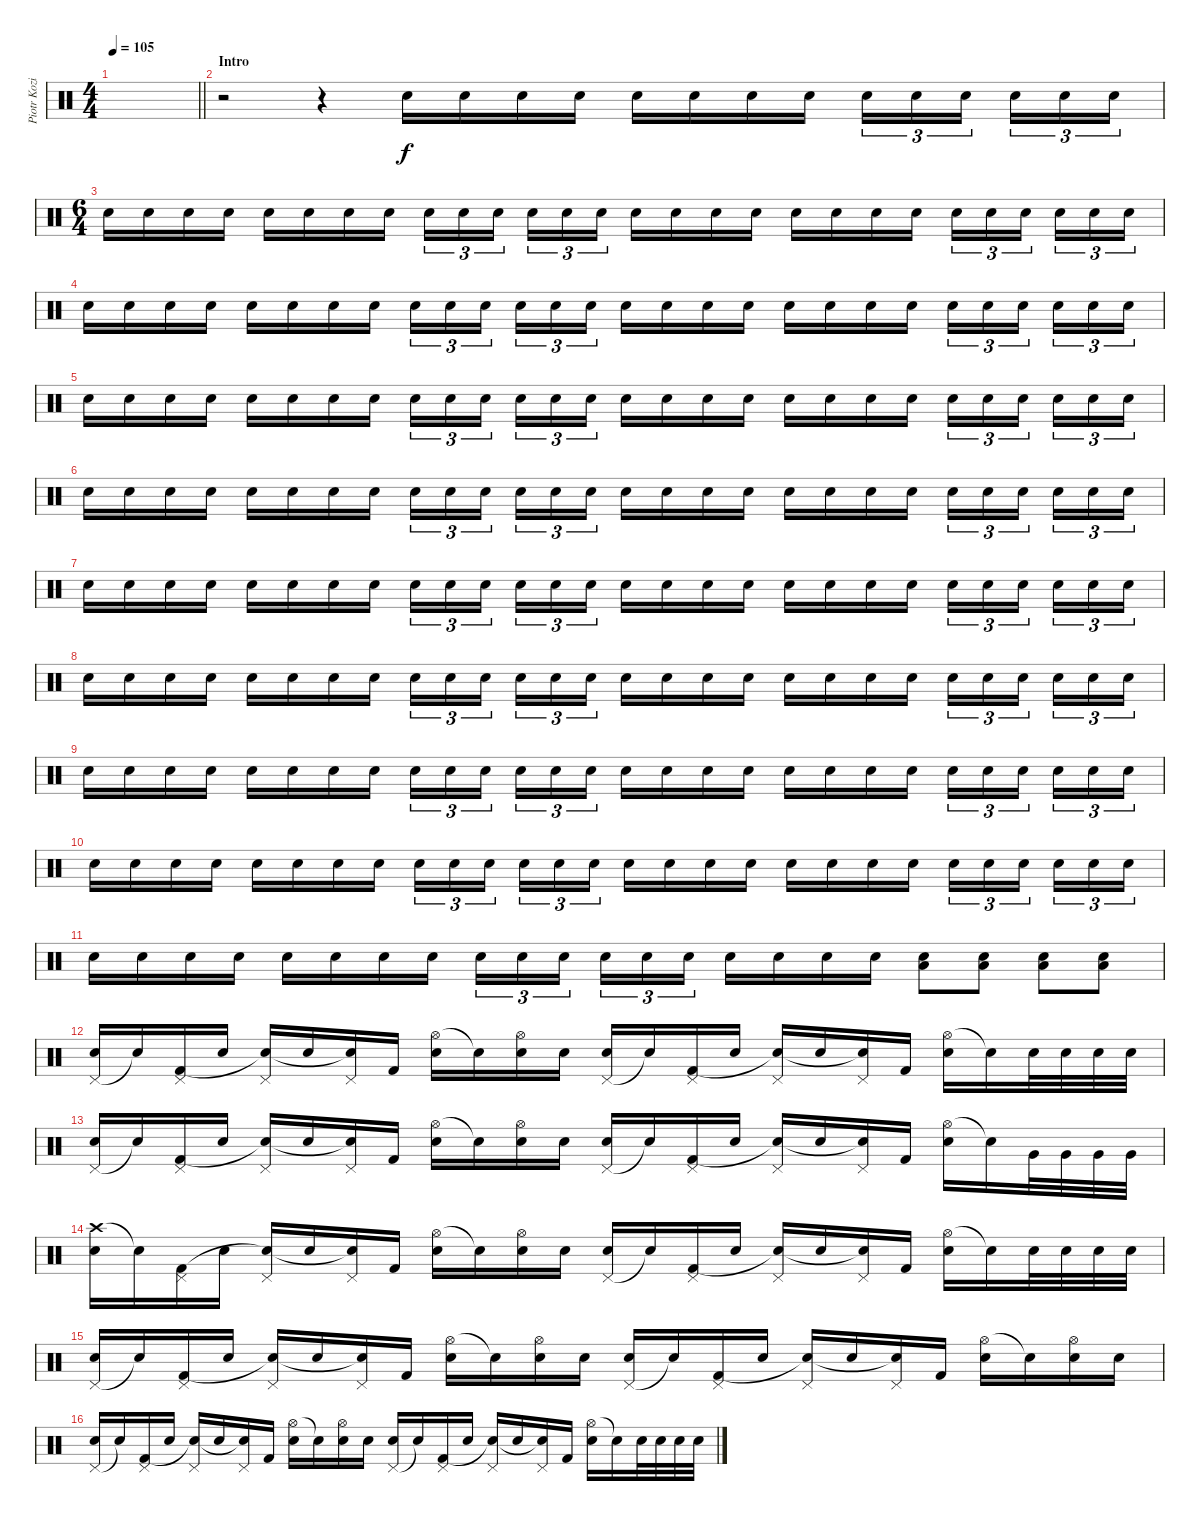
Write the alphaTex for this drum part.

\track ("Piotr Kozieradzki" "Piotr Kozi") {instrument percussion}
\staff {score}
\articulation defaults
\ts (4 4)
\tempo 105
\clef neutral
\barLineRight lightlight
\ks c
|
\section ("" "Intro")
r.2 r.4 "Electric Snare (hit)".16{volume 8} "Electric Snare (hit)".16 "Electric Snare (hit)".16 "Electric Snare (hit)".16 "Electric Snare (hit)".16 "Electric Snare (hit)".16 "Electric Snare (hit)".16 "Electric Snare (hit)".16{beam splitsecondary} "Electric Snare (hit)".16{tu (3 2)} "Electric Snare (hit)".16{tu (3 2)} "Electric Snare (hit)".16{tu (3 2) beam splitsecondary} "Electric Snare (hit)".16{tu (3 2)} "Electric Snare (hit)".16{tu (3 2)} "Electric Snare (hit)".16{tu (3 2)} |
\ts (6 4)
"Electric Snare (hit)".16 "Electric Snare (hit)".16 "Electric Snare (hit)".16 "Electric Snare (hit)".16 "Electric Snare (hit)".16 "Electric Snare (hit)".16 "Electric Snare (hit)".16 "Electric Snare (hit)".16{beam splitsecondary} "Electric Snare (hit)".16{tu (3 2)} "Electric Snare (hit)".16{tu (3 2)} "Electric Snare (hit)".16{tu (3 2) beam splitsecondary} "Electric Snare (hit)".16{tu (3 2)} "Electric Snare (hit)".16{tu (3 2)} "Electric Snare (hit)".16{tu (3 2)} "Electric Snare (hit)".16 "Electric Snare (hit)".16 "Electric Snare (hit)".16 "Electric Snare (hit)".16 "Electric Snare (hit)".16 "Electric Snare (hit)".16 "Electric Snare (hit)".16 "Electric Snare (hit)".16{beam splitsecondary} "Electric Snare (hit)".16{tu (3 2)} "Electric Snare (hit)".16{tu (3 2)} "Electric Snare (hit)".16{tu (3 2) beam splitsecondary} "Electric Snare (hit)".16{tu (3 2)} "Electric Snare (hit)".16{tu (3 2)} "Electric Snare (hit)".16{tu (3 2)} |
"Electric Snare (hit)".16 "Electric Snare (hit)".16 "Electric Snare (hit)".16 "Electric Snare (hit)".16 "Electric Snare (hit)".16 "Electric Snare (hit)".16 "Electric Snare (hit)".16 "Electric Snare (hit)".16{beam splitsecondary} "Electric Snare (hit)".16{tu (3 2)} "Electric Snare (hit)".16{tu (3 2)} "Electric Snare (hit)".16{tu (3 2) beam splitsecondary} "Electric Snare (hit)".16{tu (3 2)} "Electric Snare (hit)".16{tu (3 2)} "Electric Snare (hit)".16{tu (3 2)} "Electric Snare (hit)".16 "Electric Snare (hit)".16 "Electric Snare (hit)".16 "Electric Snare (hit)".16 "Electric Snare (hit)".16 "Electric Snare (hit)".16 "Electric Snare (hit)".16 "Electric Snare (hit)".16{beam splitsecondary} "Electric Snare (hit)".16{tu (3 2)} "Electric Snare (hit)".16{tu (3 2)} "Electric Snare (hit)".16{tu (3 2) beam splitsecondary} "Electric Snare (hit)".16{tu (3 2)} "Electric Snare (hit)".16{tu (3 2)} "Electric Snare (hit)".16{tu (3 2)} |
"Electric Snare (hit)".16 "Electric Snare (hit)".16 "Electric Snare (hit)".16 "Electric Snare (hit)".16 "Electric Snare (hit)".16 "Electric Snare (hit)".16 "Electric Snare (hit)".16 "Electric Snare (hit)".16{beam splitsecondary} "Electric Snare (hit)".16{tu (3 2)} "Electric Snare (hit)".16{tu (3 2)} "Electric Snare (hit)".16{tu (3 2) beam splitsecondary} "Electric Snare (hit)".16{tu (3 2)} "Electric Snare (hit)".16{tu (3 2)} "Electric Snare (hit)".16{tu (3 2)} "Electric Snare (hit)".16 "Electric Snare (hit)".16 "Electric Snare (hit)".16 "Electric Snare (hit)".16 "Electric Snare (hit)".16 "Electric Snare (hit)".16 "Electric Snare (hit)".16 "Electric Snare (hit)".16{beam splitsecondary} "Electric Snare (hit)".16{tu (3 2)} "Electric Snare (hit)".16{tu (3 2)} "Electric Snare (hit)".16{tu (3 2) beam splitsecondary} "Electric Snare (hit)".16{tu (3 2)} "Electric Snare (hit)".16{tu (3 2)} "Electric Snare (hit)".16{tu (3 2)} |
"Electric Snare (hit)".16 "Electric Snare (hit)".16 "Electric Snare (hit)".16 "Electric Snare (hit)".16 "Electric Snare (hit)".16 "Electric Snare (hit)".16 "Electric Snare (hit)".16 "Electric Snare (hit)".16{beam splitsecondary} "Electric Snare (hit)".16{tu (3 2)} "Electric Snare (hit)".16{tu (3 2)} "Electric Snare (hit)".16{tu (3 2) beam splitsecondary} "Electric Snare (hit)".16{tu (3 2)} "Electric Snare (hit)".16{tu (3 2)} "Electric Snare (hit)".16{tu (3 2)} "Electric Snare (hit)".16 "Electric Snare (hit)".16 "Electric Snare (hit)".16 "Electric Snare (hit)".16 "Electric Snare (hit)".16 "Electric Snare (hit)".16 "Electric Snare (hit)".16 "Electric Snare (hit)".16{beam splitsecondary} "Electric Snare (hit)".16{tu (3 2)} "Electric Snare (hit)".16{tu (3 2)} "Electric Snare (hit)".16{tu (3 2) beam splitsecondary} "Electric Snare (hit)".16{tu (3 2)} "Electric Snare (hit)".16{tu (3 2)} "Electric Snare (hit)".16{tu (3 2)} |
"Electric Snare (hit)".16 "Electric Snare (hit)".16 "Electric Snare (hit)".16 "Electric Snare (hit)".16 "Electric Snare (hit)".16 "Electric Snare (hit)".16 "Electric Snare (hit)".16 "Electric Snare (hit)".16{beam splitsecondary} "Electric Snare (hit)".16{tu (3 2)} "Electric Snare (hit)".16{tu (3 2)} "Electric Snare (hit)".16{tu (3 2) beam splitsecondary} "Electric Snare (hit)".16{tu (3 2)} "Electric Snare (hit)".16{tu (3 2)} "Electric Snare (hit)".16{tu (3 2)} "Electric Snare (hit)".16 "Electric Snare (hit)".16 "Electric Snare (hit)".16 "Electric Snare (hit)".16 "Electric Snare (hit)".16 "Electric Snare (hit)".16 "Electric Snare (hit)".16 "Electric Snare (hit)".16{beam splitsecondary} "Electric Snare (hit)".16{tu (3 2)} "Electric Snare (hit)".16{tu (3 2)} "Electric Snare (hit)".16{tu (3 2) beam splitsecondary} "Electric Snare (hit)".16{tu (3 2)} "Electric Snare (hit)".16{tu (3 2)} "Electric Snare (hit)".16{tu (3 2)} |
"Electric Snare (hit)".16 "Electric Snare (hit)".16 "Electric Snare (hit)".16 "Electric Snare (hit)".16 "Electric Snare (hit)".16 "Electric Snare (hit)".16 "Electric Snare (hit)".16 "Electric Snare (hit)".16{beam splitsecondary} "Electric Snare (hit)".16{tu (3 2)} "Electric Snare (hit)".16{tu (3 2)} "Electric Snare (hit)".16{tu (3 2) beam splitsecondary} "Electric Snare (hit)".16{tu (3 2)} "Electric Snare (hit)".16{tu (3 2)} "Electric Snare (hit)".16{tu (3 2)} "Electric Snare (hit)".16 "Electric Snare (hit)".16 "Electric Snare (hit)".16 "Electric Snare (hit)".16 "Electric Snare (hit)".16 "Electric Snare (hit)".16 "Electric Snare (hit)".16 "Electric Snare (hit)".16{beam splitsecondary} "Electric Snare (hit)".16{tu (3 2)} "Electric Snare (hit)".16{tu (3 2)} "Electric Snare (hit)".16{tu (3 2) beam splitsecondary} "Electric Snare (hit)".16{tu (3 2)} "Electric Snare (hit)".16{tu (3 2)} "Electric Snare (hit)".16{tu (3 2)} |
"Electric Snare (hit)".16 "Electric Snare (hit)".16 "Electric Snare (hit)".16 "Electric Snare (hit)".16 "Electric Snare (hit)".16 "Electric Snare (hit)".16 "Electric Snare (hit)".16 "Electric Snare (hit)".16{beam splitsecondary} "Electric Snare (hit)".16{tu (3 2)} "Electric Snare (hit)".16{tu (3 2)} "Electric Snare (hit)".16{tu (3 2) beam splitsecondary} "Electric Snare (hit)".16{tu (3 2)} "Electric Snare (hit)".16{tu (3 2)} "Electric Snare (hit)".16{tu (3 2)} "Electric Snare (hit)".16 "Electric Snare (hit)".16 "Electric Snare (hit)".16 "Electric Snare (hit)".16 "Electric Snare (hit)".16 "Electric Snare (hit)".16 "Electric Snare (hit)".16 "Electric Snare (hit)".16{beam splitsecondary} "Electric Snare (hit)".16{tu (3 2)} "Electric Snare (hit)".16{tu (3 2)} "Electric Snare (hit)".16{tu (3 2) beam splitsecondary} "Electric Snare (hit)".16{tu (3 2)} "Electric Snare (hit)".16{tu (3 2)} "Electric Snare (hit)".16{tu (3 2)} |
"Electric Snare (hit)".16 "Electric Snare (hit)".16 "Electric Snare (hit)".16 "Electric Snare (hit)".16 "Electric Snare (hit)".16 "Electric Snare (hit)".16 "Electric Snare (hit)".16 "Electric Snare (hit)".16{beam splitsecondary} "Electric Snare (hit)".16{tu (3 2)} "Electric Snare (hit)".16{tu (3 2)} "Electric Snare (hit)".16{tu (3 2) beam splitsecondary} "Electric Snare (hit)".16{tu (3 2)} "Electric Snare (hit)".16{tu (3 2)} "Electric Snare (hit)".16{tu (3 2)} "Electric Snare (hit)".16 "Electric Snare (hit)".16 "Electric Snare (hit)".16 "Electric Snare (hit)".16 "Electric Snare (hit)".16 "Electric Snare (hit)".16 "Electric Snare (hit)".16 "Electric Snare (hit)".16{beam splitsecondary} "Electric Snare (hit)".16{tu (3 2)} "Electric Snare (hit)".16{tu (3 2)} "Electric Snare (hit)".16{tu (3 2) beam splitsecondary} "Electric Snare (hit)".16{tu (3 2)} "Electric Snare (hit)".16{tu (3 2)} "Electric Snare (hit)".16{tu (3 2)} |
"Electric Snare (hit)".16 "Electric Snare (hit)".16 "Electric Snare (hit)".16 "Electric Snare (hit)".16 "Electric Snare (hit)".16 "Electric Snare (hit)".16 "Electric Snare (hit)".16 "Electric Snare (hit)".16{beam splitsecondary} "Electric Snare (hit)".16{tu (3 2)} "Electric Snare (hit)".16{tu (3 2)} "Electric Snare (hit)".16{tu (3 2) beam splitsecondary} "Electric Snare (hit)".16{tu (3 2)} "Electric Snare (hit)".16{tu (3 2)} "Electric Snare (hit)".16{tu (3 2)} "Electric Snare (hit)".16 "Electric Snare (hit)".16 "Electric Snare (hit)".16 "Electric Snare (hit)".16 ("Low Tom (hit)" "Electric Snare (hit)").8{volume 13} ("Low Tom (hit)" "Electric Snare (hit)").8 ("Low Tom (hit)" "Electric Snare (hit)").8 ("Low Tom (hit)" "Electric Snare (hit)").8 |
("Pedal Hi-Hat (hit)" "Electric Snare (hit)").16 "Snare (hit)"{t}.16 ("Pedal Hi-Hat (hit)" "Kick (hit) 2").16 "Electric Snare (hit)".16 ("Pedal Hi-Hat (hit)" "Snare (hit)"{t}).16 "Electric Snare (hit)".16 ("Pedal Hi-Hat (hit)" "Snare (hit)"{t}).16 "Kick (hit) 2".16 ("Hi-Hat (open)" "Electric Snare (hit)").16 "Snare (hit)"{t}.16 ("Hi-Hat (open)" "Electric Snare (hit)").16 "Electric Snare (hit)".16 ("Pedal Hi-Hat (hit)" "Electric Snare (hit)").16 "Snare (hit)"{t}.16 ("Pedal Hi-Hat (hit)" "Kick (hit) 2").16 "Electric Snare (hit)".16 ("Pedal Hi-Hat (hit)" "Snare (hit)"{t}).16 "Electric Snare (hit)".16 ("Pedal Hi-Hat (hit)" "Snare (hit)"{t}).16 "Kick (hit) 2".16 ("Hi-Hat (open)" "Electric Snare (hit)").16 "Snare (hit)"{t}.16 "Electric Snare (hit)".32 "Electric Snare (hit)".32 "Electric Snare (hit)".32 "Electric Snare (hit)".32 |
("Pedal Hi-Hat (hit)" "Electric Snare (hit)").16 "Snare (hit)"{t}.16 ("Pedal Hi-Hat (hit)" "Kick (hit) 2").16 "Electric Snare (hit)".16 ("Pedal Hi-Hat (hit)" "Snare (hit)"{t}).16 "Electric Snare (hit)".16 ("Pedal Hi-Hat (hit)" "Snare (hit)"{t}).16 "Kick (hit) 2".16 ("Hi-Hat (open)" "Electric Snare (hit)").16 "Snare (hit)"{t}.16 ("Hi-Hat (open)" "Electric Snare (hit)").16 "Electric Snare (hit)".16 ("Pedal Hi-Hat (hit)" "Electric Snare (hit)").16 "Snare (hit)"{t}.16 ("Pedal Hi-Hat (hit)" "Kick (hit) 2").16 "Electric Snare (hit)".16 ("Pedal Hi-Hat (hit)" "Snare (hit)"{t}).16 "Electric Snare (hit)".16 ("Pedal Hi-Hat (hit)" "Snare (hit)"{t}).16 "Kick (hit) 2".16 ("Hi-Hat (open)" "Electric Snare (hit)").16 "Snare (hit)"{t}.16 "Very Low Tom (hit)".32 "Very Low Tom (hit)".32 "Very Low Tom (hit)".32 "Very Low Tom (hit)".32 |
("Crash high (hit)" "Electric Snare (hit)").16 "Snare (hit)"{t}.16 ("Pedal Hi-Hat (hit)" "Kick (hit) 2").16 "Electric Snare (hit)".16 ("Pedal Hi-Hat (hit)" "Snare (hit)"{t}).16 "Electric Snare (hit)".16 ("Pedal Hi-Hat (hit)" "Snare (hit)"{t}).16 "Kick (hit) 2".16 ("Hi-Hat (open)" "Electric Snare (hit)").16 "Snare (hit)"{t}.16 ("Hi-Hat (open)" "Electric Snare (hit)").16 "Electric Snare (hit)".16 ("Pedal Hi-Hat (hit)" "Electric Snare (hit)").16 "Snare (hit)"{t}.16 ("Pedal Hi-Hat (hit)" "Kick (hit) 2").16 "Electric Snare (hit)".16 ("Pedal Hi-Hat (hit)" "Snare (hit)"{t}).16 "Electric Snare (hit)".16 ("Pedal Hi-Hat (hit)" "Snare (hit)"{t}).16 "Kick (hit) 2".16 ("Hi-Hat (open)" "Electric Snare (hit)").16 "Snare (hit)"{t}.16 "Electric Snare (hit)".32 "Electric Snare (hit)".32 "Electric Snare (hit)".32 "Electric Snare (hit)".32 |
("Pedal Hi-Hat (hit)" "Electric Snare (hit)").16 "Snare (hit)"{t}.16 ("Pedal Hi-Hat (hit)" "Kick (hit) 2").16 "Electric Snare (hit)".16 ("Pedal Hi-Hat (hit)" "Snare (hit)"{t}).16 "Electric Snare (hit)".16 ("Pedal Hi-Hat (hit)" "Snare (hit)"{t}).16 "Kick (hit) 2".16 ("Hi-Hat (open)" "Electric Snare (hit)").16 "Snare (hit)"{t}.16 ("Hi-Hat (open)" "Electric Snare (hit)").16 "Electric Snare (hit)".16 ("Pedal Hi-Hat (hit)" "Electric Snare (hit)").16 "Snare (hit)"{t}.16 ("Pedal Hi-Hat (hit)" "Kick (hit) 2").16 "Electric Snare (hit)".16 ("Pedal Hi-Hat (hit)" "Snare (hit)"{t}).16 "Electric Snare (hit)".16 ("Pedal Hi-Hat (hit)" "Snare (hit)"{t}).16 "Kick (hit) 2".16 ("Hi-Hat (open)" "Electric Snare (hit)").16 "Snare (hit)"{t}.16 ("Hi-Hat (open)" "Electric Snare (hit)").16 "Electric Snare (hit)".16 |
("Pedal Hi-Hat (hit)" "Electric Snare (hit)").16 "Snare (hit)"{t}.16 ("Pedal Hi-Hat (hit)" "Kick (hit) 2").16 "Electric Snare (hit)".16 ("Pedal Hi-Hat (hit)" "Snare (hit)"{t}).16 "Electric Snare (hit)".16 ("Pedal Hi-Hat (hit)" "Snare (hit)"{t}).16 "Kick (hit) 2".16 ("Hi-Hat (open)" "Electric Snare (hit)").16 "Snare (hit)"{t}.16 ("Hi-Hat (open)" "Electric Snare (hit)").16 "Electric Snare (hit)".16 ("Pedal Hi-Hat (hit)" "Electric Snare (hit)").16 "Snare (hit)"{t}.16 ("Pedal Hi-Hat (hit)" "Kick (hit) 2").16 "Electric Snare (hit)".16 ("Pedal Hi-Hat (hit)" "Snare (hit)"{t}).16 "Electric Snare (hit)".16 ("Pedal Hi-Hat (hit)" "Snare (hit)"{t}).16 "Kick (hit) 2".16 ("Hi-Hat (open)" "Electric Snare (hit)").16 "Snare (hit)"{t}.16 "Electric Snare (hit)".32 "Electric Snare (hit)".32 "Electric Snare (hit)".32 "Electric Snare (hit)".32
